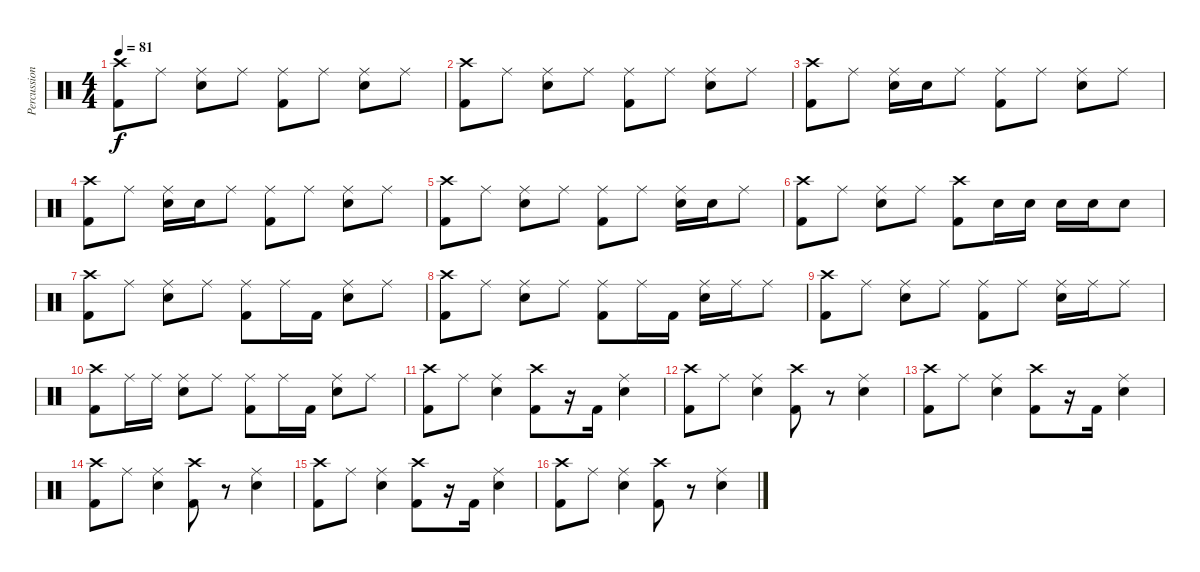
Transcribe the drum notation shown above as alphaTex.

\track ("Percussion" "Percussion") {instrument percussion}
\staff {score}
\articulation defaults
\ts (4 4)
\tempo 81
\clef neutral
\ks c
("Crash high (hit)" "Kick (hit) 2").8{dy f} "Ride (middle)".8 ("Ride (middle)" "Snare (hit) 2").8 "Ride (middle)".8 ("Ride (middle)" "Kick (hit) 2").8 "Ride (middle)".8 ("Ride (middle)" "Snare (hit) 2").8 "Ride (middle)".8 |
("Crash high (hit)" "Kick (hit) 2").8 "Ride (middle)".8 ("Ride (middle)" "Snare (hit) 2").8 "Ride (middle)".8 ("Ride (middle)" "Kick (hit) 2").8 "Ride (middle)".8 ("Ride (middle)" "Snare (hit) 2").8 "Ride (middle)".8 |
("Crash high (hit)" "Kick (hit) 2").8 "Ride (middle)".8 ("Ride (middle)" "Snare (hit) 2").16 "Snare (hit) 2".16 "Ride (middle)".8 ("Ride (middle)" "Kick (hit) 2").8 "Ride (middle)".8 ("Ride (middle)" "Snare (hit) 2").8 "Ride (middle)".8 |
("Crash high (hit)" "Kick (hit) 2").8 "Ride (middle)".8 ("Ride (middle)" "Snare (hit) 2").16 "Snare (hit) 2".16 "Ride (middle)".8 ("Ride (middle)" "Kick (hit) 2").8 "Ride (middle)".8 ("Ride (middle)" "Snare (hit) 2").8 "Ride (middle)".8 |
("Crash high (hit)" "Kick (hit) 2").8 "Ride (middle)".8 ("Ride (middle)" "Snare (hit) 2").8 "Ride (middle)".8 ("Ride (middle)" "Kick (hit) 2").8 "Ride (middle)".8 ("Ride (middle)" "Snare (hit) 2").16 "Snare (hit) 2".16 "Ride (middle)".8 |
("Crash high (hit)" "Kick (hit) 2").8 "Ride (middle)".8 ("Ride (middle)" "Snare (hit) 2").8 "Ride (middle)".8 ("Crash high (hit)" "Kick (hit) 2").8 "Snare (hit) 2".16 "Snare (hit) 2".16 "Snare (hit) 2".16 "Snare (hit) 2".16 "Snare (hit) 2".8 |
("Crash high (hit)" "Kick (hit) 2").8 "Ride (middle)".8 ("Ride (middle)" "Snare (hit) 2").8 "Ride (middle)".8 ("Ride (middle)" "Kick (hit) 2").8 "Ride (middle)".16 "Kick (hit) 2".16 ("Ride (middle)" "Snare (hit) 2").8 "Ride (middle)".8 |
("Crash high (hit)" "Kick (hit) 2").8 "Ride (middle)".8 ("Ride (middle)" "Snare (hit) 2").8 "Ride (middle)".8 ("Ride (middle)" "Kick (hit) 2").8 "Ride (middle)".16 "Kick (hit) 2".16 ("Ride (middle)" "Snare (hit) 2").16 "Ride (middle)".16 "Ride (middle)".8 |
("Crash high (hit)" "Kick (hit) 2").8 "Ride (middle)".8 ("Ride (middle)" "Snare (hit) 2").8 "Ride (middle)".8 ("Ride (middle)" "Kick (hit) 2").8 "Ride (middle)".8 ("Ride (middle)" "Snare (hit) 2").16 "Ride (middle)".16 "Ride (middle)".8 |
("Crash high (hit)" "Kick (hit) 2").8 "Ride (middle)".16 "Ride (middle)".16 ("Ride (middle)" "Snare (hit) 2").8 "Ride (middle)".8 ("Ride (middle)" "Kick (hit) 2").8 "Ride (middle)".16 "Kick (hit) 2".16 ("Ride (middle)" "Snare (hit) 2").8 "Ride (middle)".8 |
("Crash high (hit)" "Kick (hit) 2").8 "Ride (middle)".8 ("Ride (middle)" "Snare (hit) 2").4 ("Crash high (hit)" "Kick (hit) 2").8 r.16 "Kick (hit) 2".16 ("Ride (middle)" "Snare (hit) 2").4 |
("Crash high (hit)" "Kick (hit) 2").8 "Ride (middle)".8 ("Ride (middle)" "Snare (hit) 2").4 ("Crash high (hit)" "Kick (hit) 2").8 r.8 ("Ride (middle)" "Snare (hit) 2").4 |
("Crash high (hit)" "Kick (hit) 2").8 "Ride (middle)".8 ("Ride (middle)" "Snare (hit) 2").4 ("Crash high (hit)" "Kick (hit) 2").8 r.16 "Kick (hit) 2".16 ("Ride (middle)" "Snare (hit) 2").4 |
("Crash high (hit)" "Kick (hit) 2").8 "Ride (middle)".8 ("Ride (middle)" "Snare (hit) 2").4 ("Crash high (hit)" "Kick (hit) 2").8 r.8 ("Ride (middle)" "Snare (hit) 2").4 |
("Crash high (hit)" "Kick (hit) 2").8 "Ride (middle)".8 ("Ride (middle)" "Snare (hit) 2").4 ("Crash high (hit)" "Kick (hit) 2").8 r.16 "Kick (hit) 2".16 ("Ride (middle)" "Snare (hit) 2").4 |
("Crash high (hit)" "Kick (hit) 2").8 "Ride (middle)".8 ("Ride (middle)" "Snare (hit) 2").4 ("Crash high (hit)" "Kick (hit) 2").8 r.8 ("Ride (middle)" "Snare (hit) 2").4
